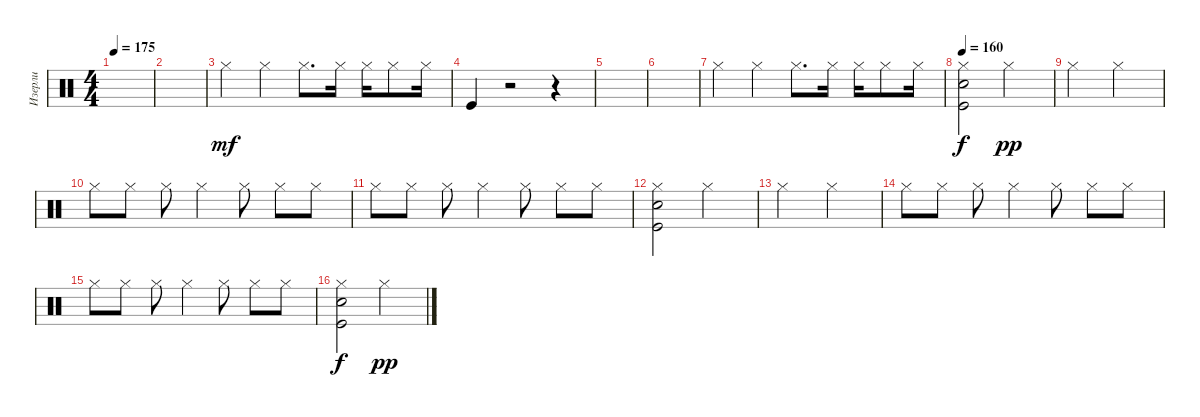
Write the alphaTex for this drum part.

\track ("Изерли" "Изерли") {instrument percussion}
\staff {score}
\articulation defaults
\ts (4 4)
\tempo 175
\clef neutral
\ks c
|
|
"Hi-Hat (closed)".4{dy mf} "Hi-Hat (closed)".4 "Hi-Hat (closed)".8{d} "Hi-Hat (closed)".16 "Hi-Hat (closed)".16 "Hi-Hat (closed)".8 "Hi-Hat (closed)".16 |
"Kick (hit)".4 r.2 r.4 |
|
|
"Hi-Hat (closed)".4 "Hi-Hat (closed)".4 "Hi-Hat (closed)".8{d} "Hi-Hat (closed)".16 "Hi-Hat (closed)".16 "Hi-Hat (closed)".8 "Hi-Hat (closed)".16 |
\tempo 160
("Snare (hit) 2" "Kick (hit)" "Hi-Hat (closed)").2{dy f} "Hi-Hat (closed)".2{dy pp} |
"Hi-Hat (closed)".2 "Hi-Hat (closed)".2 |
"Hi-Hat (closed)".8 "Hi-Hat (closed)".8 "Hi-Hat (closed)".8 "Hi-Hat (closed)".4 "Hi-Hat (closed)".8 "Hi-Hat (closed)".8 "Hi-Hat (closed)".8 |
"Hi-Hat (closed)".8 "Hi-Hat (closed)".8 "Hi-Hat (closed)".8 "Hi-Hat (closed)".4 "Hi-Hat (closed)".8 "Hi-Hat (closed)".8 "Hi-Hat (closed)".8 |
("Hi-Hat (closed)" "Snare (hit) 2" "Kick (hit)").2 "Hi-Hat (closed)".2 |
"Hi-Hat (closed)".2 "Hi-Hat (closed)".2 |
"Hi-Hat (closed)".8 "Hi-Hat (closed)".8 "Hi-Hat (closed)".8 "Hi-Hat (closed)".4 "Hi-Hat (closed)".8 "Hi-Hat (closed)".8 "Hi-Hat (closed)".8 |
"Hi-Hat (closed)".8 "Hi-Hat (closed)".8 "Hi-Hat (closed)".8 "Hi-Hat (closed)".4 "Hi-Hat (closed)".8 "Hi-Hat (closed)".8 "Hi-Hat (closed)".8 |
("Kick (hit)" "Hi-Hat (closed)" "Snare (hit) 2").2{dy f} "Hi-Hat (closed)".2{dy pp}
